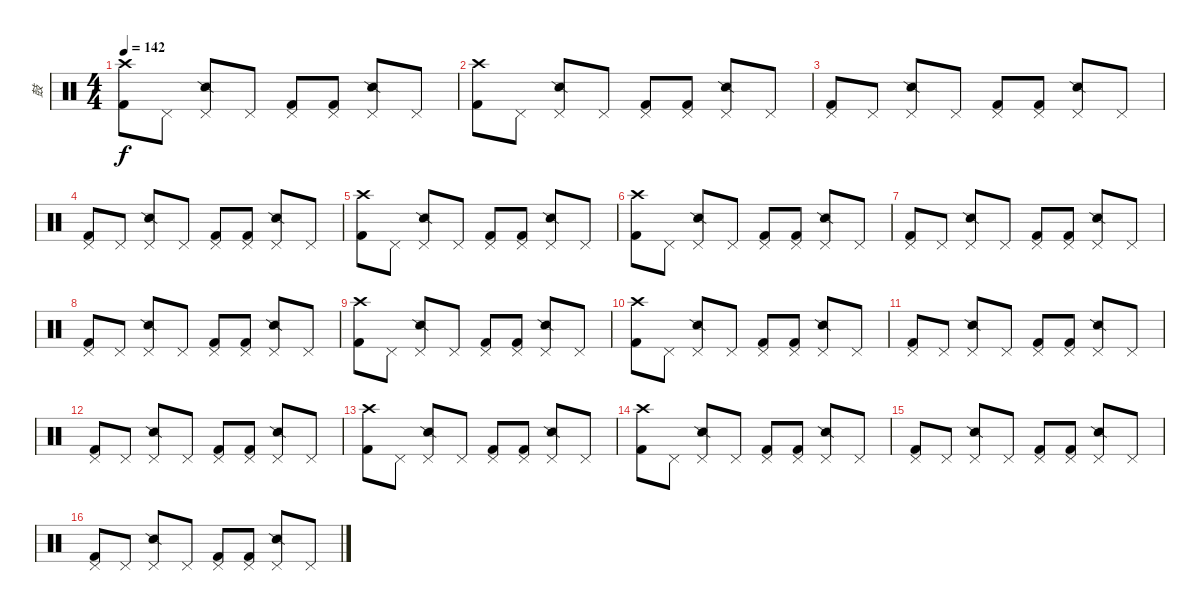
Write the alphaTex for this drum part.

\track ("鼓" "鼓") {instrument percussion}
\staff {score}
\articulation defaults
\ts (4 4)
\tempo 142
\clef neutral
\ks c
("Crash high (hit)" "Kick (hit) 2").8{dy f} "Pedal Hi-Hat (hit)".8 ("Pedal Hi-Hat (hit)" "Snare (side stick) 2").8 "Pedal Hi-Hat (hit)".8 ("Pedal Hi-Hat (hit)" "Kick (hit) 2").8 ("Pedal Hi-Hat (hit)" "Kick (hit) 2").8 ("Pedal Hi-Hat (hit)" "Snare (side stick) 2").8 "Pedal Hi-Hat (hit)".8 |
("Crash high (hit)" "Kick (hit) 2").8 "Pedal Hi-Hat (hit)".8 ("Pedal Hi-Hat (hit)" "Snare (side stick) 2").8 "Pedal Hi-Hat (hit)".8 ("Pedal Hi-Hat (hit)" "Kick (hit) 2").8 ("Pedal Hi-Hat (hit)" "Kick (hit) 2").8 ("Pedal Hi-Hat (hit)" "Snare (side stick) 2").8 "Pedal Hi-Hat (hit)".8 |
("Pedal Hi-Hat (hit)" "Kick (hit) 2").8 "Pedal Hi-Hat (hit)".8 ("Pedal Hi-Hat (hit)" "Snare (side stick) 2").8 "Pedal Hi-Hat (hit)".8 ("Pedal Hi-Hat (hit)" "Kick (hit) 2").8 ("Pedal Hi-Hat (hit)" "Kick (hit) 2").8 ("Pedal Hi-Hat (hit)" "Snare (side stick) 2").8 "Pedal Hi-Hat (hit)".8 |
("Pedal Hi-Hat (hit)" "Kick (hit) 2").8 "Pedal Hi-Hat (hit)".8 ("Pedal Hi-Hat (hit)" "Snare (side stick) 2").8 "Pedal Hi-Hat (hit)".8 ("Pedal Hi-Hat (hit)" "Kick (hit) 2").8 ("Pedal Hi-Hat (hit)" "Kick (hit) 2").8 ("Pedal Hi-Hat (hit)" "Snare (side stick) 2").8 "Pedal Hi-Hat (hit)".8 |
("Crash high (hit)" "Kick (hit) 2").8 "Pedal Hi-Hat (hit)".8 ("Pedal Hi-Hat (hit)" "Snare (side stick) 2").8 "Pedal Hi-Hat (hit)".8 ("Pedal Hi-Hat (hit)" "Kick (hit) 2").8 ("Pedal Hi-Hat (hit)" "Kick (hit) 2").8 ("Pedal Hi-Hat (hit)" "Snare (side stick) 2").8 "Pedal Hi-Hat (hit)".8 |
("Crash high (hit)" "Kick (hit) 2").8 "Pedal Hi-Hat (hit)".8 ("Pedal Hi-Hat (hit)" "Snare (side stick) 2").8 "Pedal Hi-Hat (hit)".8 ("Pedal Hi-Hat (hit)" "Kick (hit) 2").8 ("Pedal Hi-Hat (hit)" "Kick (hit) 2").8 ("Pedal Hi-Hat (hit)" "Snare (side stick) 2").8 "Pedal Hi-Hat (hit)".8 |
("Pedal Hi-Hat (hit)" "Kick (hit) 2").8 "Pedal Hi-Hat (hit)".8 ("Pedal Hi-Hat (hit)" "Snare (side stick) 2").8 "Pedal Hi-Hat (hit)".8 ("Pedal Hi-Hat (hit)" "Kick (hit) 2").8 ("Pedal Hi-Hat (hit)" "Kick (hit) 2").8 ("Pedal Hi-Hat (hit)" "Snare (side stick) 2").8 "Pedal Hi-Hat (hit)".8 |
("Pedal Hi-Hat (hit)" "Kick (hit) 2").8 "Pedal Hi-Hat (hit)".8 ("Pedal Hi-Hat (hit)" "Snare (side stick) 2").8 "Pedal Hi-Hat (hit)".8 ("Pedal Hi-Hat (hit)" "Kick (hit) 2").8 ("Pedal Hi-Hat (hit)" "Kick (hit) 2").8 ("Pedal Hi-Hat (hit)" "Snare (side stick) 2").8 "Pedal Hi-Hat (hit)".8 |
("Crash high (hit)" "Kick (hit) 2").8 "Pedal Hi-Hat (hit)".8 ("Pedal Hi-Hat (hit)" "Snare (side stick) 2").8 "Pedal Hi-Hat (hit)".8 ("Pedal Hi-Hat (hit)" "Kick (hit) 2").8 ("Pedal Hi-Hat (hit)" "Kick (hit) 2").8 ("Pedal Hi-Hat (hit)" "Snare (side stick) 2").8 "Pedal Hi-Hat (hit)".8 |
("Crash high (hit)" "Kick (hit) 2").8 "Pedal Hi-Hat (hit)".8 ("Pedal Hi-Hat (hit)" "Snare (side stick) 2").8 "Pedal Hi-Hat (hit)".8 ("Pedal Hi-Hat (hit)" "Kick (hit) 2").8 ("Pedal Hi-Hat (hit)" "Kick (hit) 2").8 ("Pedal Hi-Hat (hit)" "Snare (side stick) 2").8 "Pedal Hi-Hat (hit)".8 |
("Pedal Hi-Hat (hit)" "Kick (hit) 2").8 "Pedal Hi-Hat (hit)".8 ("Pedal Hi-Hat (hit)" "Snare (side stick) 2").8 "Pedal Hi-Hat (hit)".8 ("Pedal Hi-Hat (hit)" "Kick (hit) 2").8 ("Pedal Hi-Hat (hit)" "Kick (hit) 2").8 ("Pedal Hi-Hat (hit)" "Snare (side stick) 2").8 "Pedal Hi-Hat (hit)".8 |
("Pedal Hi-Hat (hit)" "Kick (hit) 2").8 "Pedal Hi-Hat (hit)".8 ("Pedal Hi-Hat (hit)" "Snare (side stick) 2").8 "Pedal Hi-Hat (hit)".8 ("Pedal Hi-Hat (hit)" "Kick (hit) 2").8 ("Pedal Hi-Hat (hit)" "Kick (hit) 2").8 ("Pedal Hi-Hat (hit)" "Snare (side stick) 2").8 "Pedal Hi-Hat (hit)".8 |
("Crash high (hit)" "Kick (hit) 2").8 "Pedal Hi-Hat (hit)".8 ("Pedal Hi-Hat (hit)" "Snare (side stick) 2").8 "Pedal Hi-Hat (hit)".8 ("Pedal Hi-Hat (hit)" "Kick (hit) 2").8 ("Pedal Hi-Hat (hit)" "Kick (hit) 2").8 ("Pedal Hi-Hat (hit)" "Snare (side stick) 2").8 "Pedal Hi-Hat (hit)".8 |
("Crash high (hit)" "Kick (hit) 2").8 "Pedal Hi-Hat (hit)".8 ("Pedal Hi-Hat (hit)" "Snare (side stick) 2").8 "Pedal Hi-Hat (hit)".8 ("Pedal Hi-Hat (hit)" "Kick (hit) 2").8 ("Pedal Hi-Hat (hit)" "Kick (hit) 2").8 ("Pedal Hi-Hat (hit)" "Snare (side stick) 2").8 "Pedal Hi-Hat (hit)".8 |
("Pedal Hi-Hat (hit)" "Kick (hit) 2").8 "Pedal Hi-Hat (hit)".8 ("Pedal Hi-Hat (hit)" "Snare (side stick) 2").8 "Pedal Hi-Hat (hit)".8 ("Pedal Hi-Hat (hit)" "Kick (hit) 2").8 ("Pedal Hi-Hat (hit)" "Kick (hit) 2").8 ("Pedal Hi-Hat (hit)" "Snare (side stick) 2").8 "Pedal Hi-Hat (hit)".8 |
("Pedal Hi-Hat (hit)" "Kick (hit) 2").8 "Pedal Hi-Hat (hit)".8 ("Pedal Hi-Hat (hit)" "Snare (side stick) 2").8 "Pedal Hi-Hat (hit)".8 ("Pedal Hi-Hat (hit)" "Kick (hit) 2").8 ("Pedal Hi-Hat (hit)" "Kick (hit) 2").8 ("Pedal Hi-Hat (hit)" "Snare (side stick) 2").8 "Pedal Hi-Hat (hit)".8
